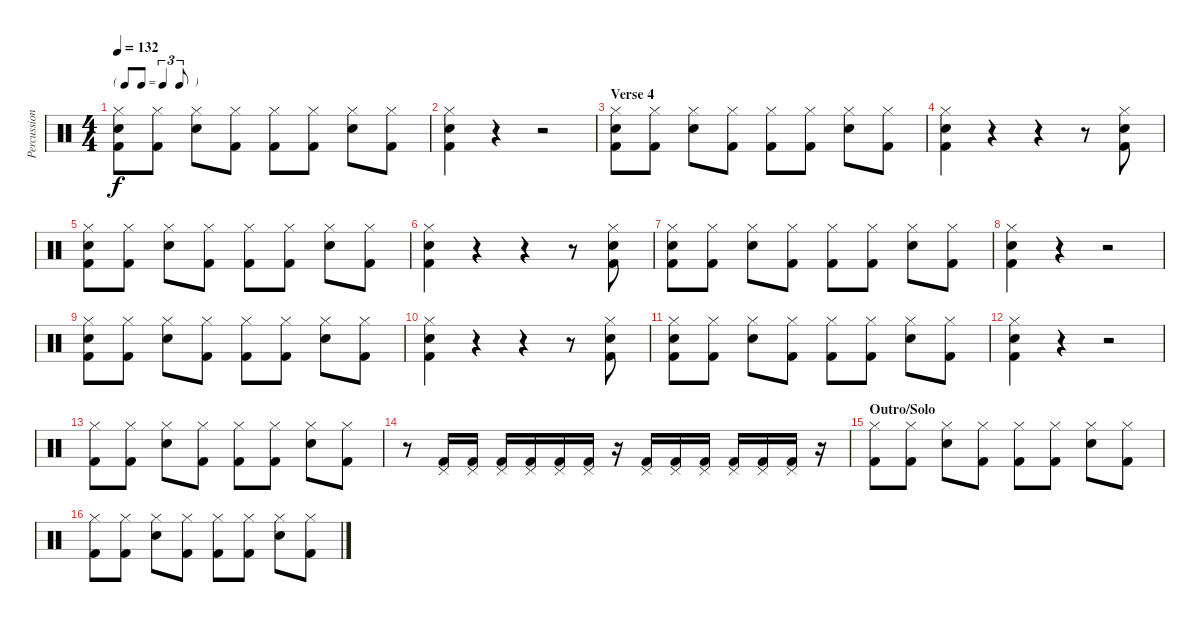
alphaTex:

\track ("Percussion" "Percussion") {instrument percussion}
\staff {score}
\articulation defaults
\ts (4 4)
\tf triplet8th
\tempo 132
\clef neutral
\ks c
("Hi-Hat (closed)" "Electric Snare (hit)" "Kick (hit) 2").8{dy f} ("Hi-Hat (closed)" "Kick (hit) 2").8 ("Hi-Hat (closed)" "Electric Snare (hit)").8 ("Hi-Hat (closed)" "Kick (hit) 2").8 ("Hi-Hat (closed)" "Kick (hit) 2").8 ("Hi-Hat (closed)" "Kick (hit) 2").8 ("Hi-Hat (closed)" "Electric Snare (hit)").8 ("Hi-Hat (closed)" "Kick (hit) 2").8 |
("Hi-Hat (closed)" "Electric Snare (hit)" "Kick (hit) 2").4 r.4 r.2 |
\section ("" "Verse 4")
("Hi-Hat (closed)" "Electric Snare (hit)" "Kick (hit) 2").8 ("Hi-Hat (closed)" "Kick (hit) 2").8 ("Hi-Hat (closed)" "Electric Snare (hit)").8 ("Hi-Hat (closed)" "Kick (hit) 2").8 ("Hi-Hat (closed)" "Kick (hit) 2").8 ("Hi-Hat (closed)" "Kick (hit) 2").8 ("Hi-Hat (closed)" "Electric Snare (hit)").8 ("Hi-Hat (closed)" "Kick (hit) 2").8 |
("Hi-Hat (closed)" "Electric Snare (hit)" "Kick (hit) 2").4 r.4 r.4 r.8 ("Hi-Hat (closed)" "Electric Snare (hit)" "Kick (hit) 2").8 |
("Hi-Hat (closed)" "Electric Snare (hit)" "Kick (hit) 2").8 ("Hi-Hat (closed)" "Kick (hit) 2").8 ("Hi-Hat (closed)" "Electric Snare (hit)").8 ("Hi-Hat (closed)" "Kick (hit) 2").8 ("Hi-Hat (closed)" "Kick (hit) 2").8 ("Hi-Hat (closed)" "Kick (hit) 2").8 ("Hi-Hat (closed)" "Electric Snare (hit)").8 ("Hi-Hat (closed)" "Kick (hit) 2").8 |
("Hi-Hat (closed)" "Electric Snare (hit)" "Kick (hit) 2").4 r.4 r.4 r.8 ("Hi-Hat (closed)" "Electric Snare (hit)" "Kick (hit) 2").8 |
("Hi-Hat (closed)" "Electric Snare (hit)" "Kick (hit) 2").8 ("Hi-Hat (closed)" "Kick (hit) 2").8 ("Hi-Hat (closed)" "Electric Snare (hit)").8 ("Hi-Hat (closed)" "Kick (hit) 2").8 ("Hi-Hat (closed)" "Kick (hit) 2").8 ("Hi-Hat (closed)" "Kick (hit) 2").8 ("Hi-Hat (closed)" "Electric Snare (hit)").8 ("Hi-Hat (closed)" "Kick (hit) 2").8 |
("Hi-Hat (closed)" "Electric Snare (hit)" "Kick (hit) 2").4 r.4 r.2 |
("Hi-Hat (closed)" "Electric Snare (hit)" "Kick (hit) 2").8 ("Hi-Hat (closed)" "Kick (hit) 2").8 ("Hi-Hat (closed)" "Electric Snare (hit)").8 ("Hi-Hat (closed)" "Kick (hit) 2").8 ("Hi-Hat (closed)" "Kick (hit) 2").8 ("Hi-Hat (closed)" "Kick (hit) 2").8 ("Hi-Hat (closed)" "Electric Snare (hit)").8 ("Hi-Hat (closed)" "Kick (hit) 2").8 |
("Hi-Hat (closed)" "Electric Snare (hit)" "Kick (hit) 2").4 r.4 r.4 r.8 ("Hi-Hat (closed)" "Electric Snare (hit)" "Kick (hit) 2").8 |
("Hi-Hat (closed)" "Electric Snare (hit)" "Kick (hit) 2").8 ("Hi-Hat (closed)" "Kick (hit) 2").8 ("Hi-Hat (closed)" "Electric Snare (hit)").8 ("Hi-Hat (closed)" "Kick (hit) 2").8 ("Hi-Hat (closed)" "Kick (hit) 2").8 ("Hi-Hat (closed)" "Kick (hit) 2").8 ("Hi-Hat (closed)" "Electric Snare (hit)").8 ("Hi-Hat (closed)" "Kick (hit) 2").8 |
("Hi-Hat (closed)" "Electric Snare (hit)" "Kick (hit) 2").4 r.4 r.2 |
("Hi-Hat (closed)" "Kick (hit) 2").8 ("Hi-Hat (closed)" "Kick (hit) 2").8 ("Hi-Hat (closed)" "Electric Snare (hit)").8 ("Hi-Hat (closed)" "Kick (hit) 2").8 ("Hi-Hat (closed)" "Kick (hit) 2").8 ("Hi-Hat (closed)" "Kick (hit) 2").8 ("Hi-Hat (closed)" "Electric Snare (hit)").8 ("Hi-Hat (closed)" "Kick (hit) 2").8 |
r.8 ("Pedal Hi-Hat (hit)" "Kick (hit) 2").16 ("Pedal Hi-Hat (hit)" "Kick (hit) 2").16 ("Pedal Hi-Hat (hit)" "Kick (hit) 2").16 ("Pedal Hi-Hat (hit)" "Kick (hit) 2").16 ("Pedal Hi-Hat (hit)" "Kick (hit) 2").16 ("Pedal Hi-Hat (hit)" "Kick (hit) 2").16 r.16 ("Pedal Hi-Hat (hit)" "Kick (hit) 2").16 ("Pedal Hi-Hat (hit)" "Kick (hit) 2").16 ("Pedal Hi-Hat (hit)" "Kick (hit) 2").16 ("Pedal Hi-Hat (hit)" "Kick (hit) 2").16 ("Pedal Hi-Hat (hit)" "Kick (hit) 2").16 ("Pedal Hi-Hat (hit)" "Kick (hit) 2").16 r.16 |
\section ("" "Outro/Solo")
("Hi-Hat (closed)" "Kick (hit) 2").8 ("Hi-Hat (closed)" "Kick (hit) 2").8 ("Hi-Hat (closed)" "Electric Snare (hit)").8 ("Hi-Hat (closed)" "Kick (hit) 2").8 ("Hi-Hat (closed)" "Kick (hit) 2").8 ("Hi-Hat (closed)" "Kick (hit) 2").8 ("Hi-Hat (closed)" "Electric Snare (hit)").8 ("Hi-Hat (closed)" "Kick (hit) 2").8 |
("Hi-Hat (closed)" "Kick (hit) 2").8 ("Hi-Hat (closed)" "Kick (hit) 2").8 ("Hi-Hat (closed)" "Electric Snare (hit)").8 ("Hi-Hat (closed)" "Kick (hit) 2").8 ("Hi-Hat (closed)" "Kick (hit) 2").8 ("Hi-Hat (closed)" "Kick (hit) 2").8 ("Hi-Hat (closed)" "Electric Snare (hit)").8 ("Hi-Hat (closed)" "Kick (hit) 2").8
